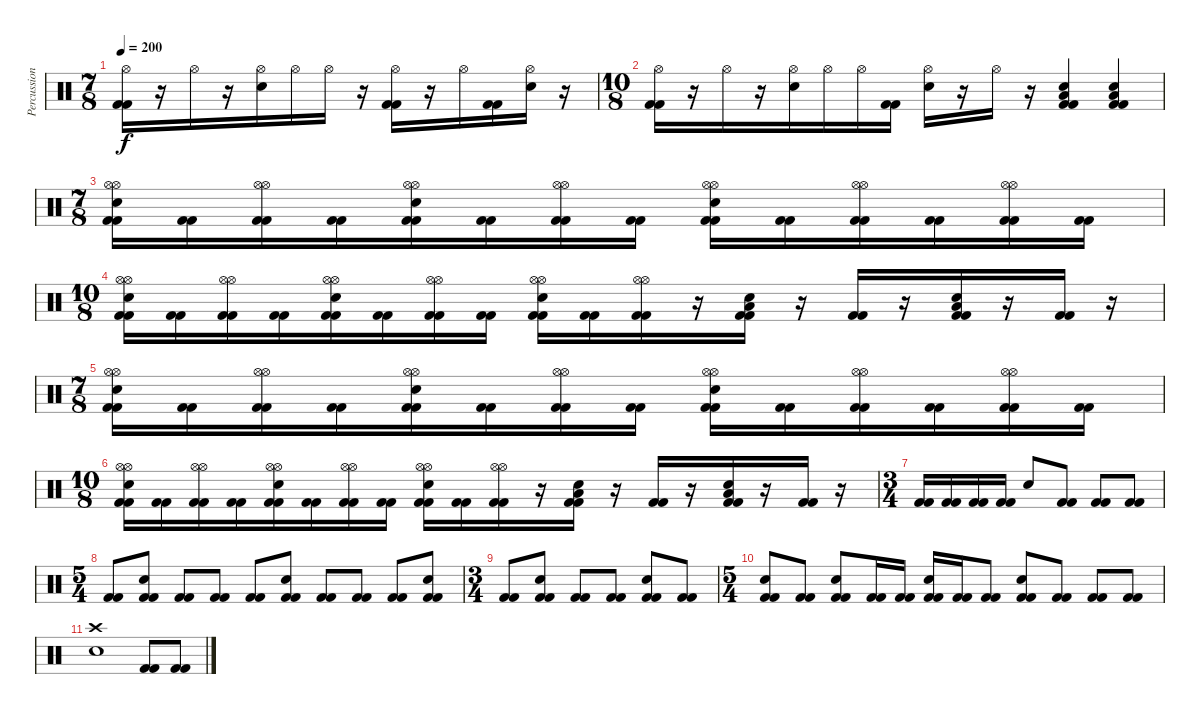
\track ("Percussions" "Percussion") {instrument percussion}
\staff {score}
\articulation defaults
\ts (7 8)
\tempo 200
\clef neutral
\ks c
("Hi-Hat (open)" "Kick (hit) 2" "Kick (hit) 2").16{dy f} r.16 "Hi-Hat (open)".16 r.16 ("Hi-Hat (open)" "Electric Snare (hit)").16 "Hi-Hat (open)".16 "Hi-Hat (open)".16 r.16 ("Hi-Hat (open)" "Kick (hit) 2" "Kick (hit) 2").16 r.16 "Hi-Hat (open)".16 ("Kick (hit) 2" "Kick (hit) 2").16 ("Hi-Hat (open)" "Electric Snare (hit)").16 r.16 |
\ts (10 8)
("Hi-Hat (open)" "Kick (hit) 2" "Kick (hit) 2").16 r.16 "Hi-Hat (open)".16 r.16 ("Hi-Hat (open)" "Electric Snare (hit)").16 "Hi-Hat (open)".16 "Hi-Hat (open)".16 ("Kick (hit) 2" "Kick (hit) 2").16 ("Hi-Hat (open)" "Electric Snare (hit)").16 r.16 "Hi-Hat (open)".16 r.16 ("Electric Snare (hit)" "Low Floor Tom (hit)" "Kick (hit) 2" "Kick (hit) 2").4 ("Electric Snare (hit)" "Low Floor Tom (hit)" "Kick (hit) 2" "Kick (hit) 2").4 |
\ts (7 8)
("Kick (hit) 2" "Kick (hit) 2" "Electric Snare (hit)" "Hi-Hat (open)" "Hi-Hat (open)").16 ("Kick (hit) 2" "Kick (hit) 2").16 ("Kick (hit) 2" "Kick (hit) 2" "Hi-Hat (open)" "Hi-Hat (open)").16 ("Kick (hit) 2" "Kick (hit) 2").16 ("Kick (hit) 2" "Kick (hit) 2" "Electric Snare (hit)" "Hi-Hat (open)" "Hi-Hat (open)").16 ("Kick (hit) 2" "Kick (hit) 2").16 ("Kick (hit) 2" "Kick (hit) 2" "Hi-Hat (open)" "Hi-Hat (open)").16 ("Kick (hit) 2" "Kick (hit) 2").16 ("Kick (hit) 2" "Kick (hit) 2" "Electric Snare (hit)" "Hi-Hat (open)" "Hi-Hat (open)").16 ("Kick (hit) 2" "Kick (hit) 2").16 ("Kick (hit) 2" "Kick (hit) 2" "Hi-Hat (open)" "Hi-Hat (open)").16 ("Kick (hit) 2" "Kick (hit) 2").16 ("Kick (hit) 2" "Kick (hit) 2" "Hi-Hat (open)" "Hi-Hat (open)").16 ("Kick (hit) 2" "Kick (hit) 2").16 |
\ts (10 8)
("Kick (hit) 2" "Kick (hit) 2" "Electric Snare (hit)" "Hi-Hat (open)" "Hi-Hat (open)").16 ("Kick (hit) 2" "Kick (hit) 2").16 ("Kick (hit) 2" "Kick (hit) 2" "Hi-Hat (open)" "Hi-Hat (open)").16 ("Kick (hit) 2" "Kick (hit) 2").16 ("Kick (hit) 2" "Kick (hit) 2" "Electric Snare (hit)" "Hi-Hat (open)" "Hi-Hat (open)").16 ("Kick (hit) 2" "Kick (hit) 2").16 ("Kick (hit) 2" "Kick (hit) 2" "Hi-Hat (open)" "Hi-Hat (open)").16 ("Kick (hit) 2" "Kick (hit) 2").16 ("Kick (hit) 2" "Kick (hit) 2" "Electric Snare (hit)" "Hi-Hat (open)" "Hi-Hat (open)").16 ("Kick (hit) 2" "Kick (hit) 2").16 ("Kick (hit) 2" "Kick (hit) 2" "Hi-Hat (open)" "Hi-Hat (open)").16 r.16 ("Kick (hit) 2" "Kick (hit) 2" "Electric Snare (hit)" "Low Floor Tom (hit)").16 r.16 ("Kick (hit) 2" "Kick (hit) 2").16 r.16 ("Kick (hit) 2" "Kick (hit) 2" "Electric Snare (hit)" "Low Floor Tom (hit)").16 r.16 ("Kick (hit) 2" "Kick (hit) 2").16 r.16 |
\ts (7 8)
("Kick (hit) 2" "Kick (hit) 2" "Electric Snare (hit)" "Hi-Hat (open)" "Hi-Hat (open)").16 ("Kick (hit) 2" "Kick (hit) 2").16 ("Kick (hit) 2" "Kick (hit) 2" "Hi-Hat (open)" "Hi-Hat (open)").16 ("Kick (hit) 2" "Kick (hit) 2").16 ("Kick (hit) 2" "Kick (hit) 2" "Electric Snare (hit)" "Hi-Hat (open)" "Hi-Hat (open)").16 ("Kick (hit) 2" "Kick (hit) 2").16 ("Kick (hit) 2" "Kick (hit) 2" "Hi-Hat (open)" "Hi-Hat (open)").16 ("Kick (hit) 2" "Kick (hit) 2").16 ("Kick (hit) 2" "Kick (hit) 2" "Electric Snare (hit)" "Hi-Hat (open)" "Hi-Hat (open)").16 ("Kick (hit) 2" "Kick (hit) 2").16 ("Kick (hit) 2" "Kick (hit) 2" "Hi-Hat (open)" "Hi-Hat (open)").16 ("Kick (hit) 2" "Kick (hit) 2").16 ("Kick (hit) 2" "Kick (hit) 2" "Hi-Hat (open)" "Hi-Hat (open)").16 ("Kick (hit) 2" "Kick (hit) 2").16 |
\ts (10 8)
("Kick (hit) 2" "Kick (hit) 2" "Electric Snare (hit)" "Hi-Hat (open)" "Hi-Hat (open)").16 ("Kick (hit) 2" "Kick (hit) 2").16 ("Kick (hit) 2" "Kick (hit) 2" "Hi-Hat (open)" "Hi-Hat (open)").16 ("Kick (hit) 2" "Kick (hit) 2").16 ("Kick (hit) 2" "Kick (hit) 2" "Electric Snare (hit)" "Hi-Hat (open)" "Hi-Hat (open)").16 ("Kick (hit) 2" "Kick (hit) 2").16 ("Kick (hit) 2" "Kick (hit) 2" "Hi-Hat (open)" "Hi-Hat (open)").16 ("Kick (hit) 2" "Kick (hit) 2").16 ("Kick (hit) 2" "Kick (hit) 2" "Electric Snare (hit)" "Hi-Hat (open)" "Hi-Hat (open)").16 ("Kick (hit) 2" "Kick (hit) 2").16 ("Kick (hit) 2" "Kick (hit) 2" "Hi-Hat (open)" "Hi-Hat (open)").16 r.16 ("Kick (hit) 2" "Kick (hit) 2" "Electric Snare (hit)" "Low Floor Tom (hit)").16 r.16 ("Kick (hit) 2" "Kick (hit) 2").16 r.16 ("Kick (hit) 2" "Kick (hit) 2" "Electric Snare (hit)" "Low Floor Tom (hit)").16 r.16 ("Kick (hit) 2" "Kick (hit) 2").16 r.16 |
\ts (3 4)
("Kick (hit) 2" "Kick (hit) 2").16{volume 12} ("Kick (hit) 2" "Kick (hit) 2").16 ("Kick (hit) 2" "Kick (hit) 2").16 ("Kick (hit) 2" "Kick (hit) 2").16 "Electric Snare (hit)".8 ("Kick (hit) 2" "Kick (hit) 2").8 ("Kick (hit) 2" "Kick (hit) 2").8 ("Kick (hit) 2" "Kick (hit) 2").8 |
\ts (5 4)
("Kick (hit) 2" "Kick (hit) 2").8 ("Kick (hit) 2" "Kick (hit) 2" "Electric Snare (hit)").8 ("Kick (hit) 2" "Kick (hit) 2").8 ("Kick (hit) 2" "Kick (hit) 2").8 ("Kick (hit) 2" "Kick (hit) 2").8 ("Kick (hit) 2" "Kick (hit) 2" "Electric Snare (hit)").8 ("Kick (hit) 2" "Kick (hit) 2").8 ("Kick (hit) 2" "Kick (hit) 2").8 ("Kick (hit) 2" "Kick (hit) 2").8 ("Kick (hit) 2" "Kick (hit) 2" "Electric Snare (hit)").8 |
\ts (3 4)
("Kick (hit) 2" "Kick (hit) 2").8 ("Kick (hit) 2" "Kick (hit) 2" "Electric Snare (hit)").8 ("Kick (hit) 2" "Kick (hit) 2").8 ("Kick (hit) 2" "Kick (hit) 2").8 ("Kick (hit) 2" "Kick (hit) 2" "Electric Snare (hit)").8 ("Kick (hit) 2" "Kick (hit) 2").8 |
\ts (5 4)
("Kick (hit) 2" "Kick (hit) 2" "Electric Snare (hit)").8 ("Kick (hit) 2" "Kick (hit) 2").8 ("Kick (hit) 2" "Kick (hit) 2" "Electric Snare (hit)").8 ("Kick (hit) 2" "Kick (hit) 2").16 ("Kick (hit) 2" "Kick (hit) 2").16 ("Kick (hit) 2" "Kick (hit) 2" "Electric Snare (hit)").16 ("Kick (hit) 2" "Kick (hit) 2").16 ("Kick (hit) 2" "Kick (hit) 2").8 ("Kick (hit) 2" "Kick (hit) 2" "Electric Snare (hit)").8 ("Kick (hit) 2" "Kick (hit) 2").8 ("Kick (hit) 2" "Kick (hit) 2").8 ("Kick (hit) 2" "Kick (hit) 2").8 |
("Electric Snare (hit)" "Crash high (hit)").1 ("Kick (hit) 2" "Kick (hit) 2").8 ("Kick (hit) 2" "Kick (hit) 2").8
